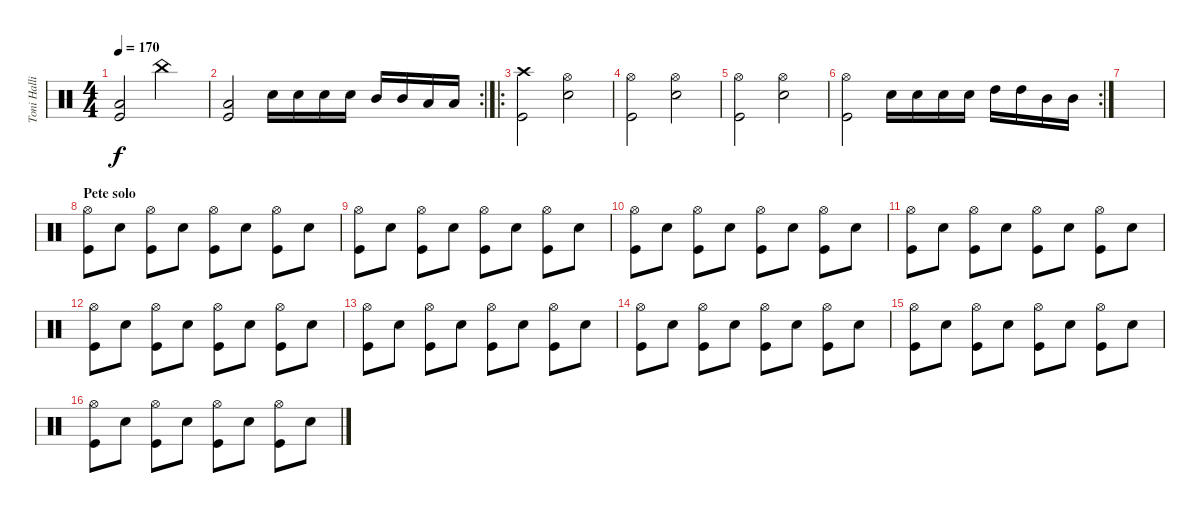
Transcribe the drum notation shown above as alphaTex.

\track ("Toni Hallio" "Toni Halli") {instrument percussion}
\staff {score}
\articulation defaults
\ts (4 4)
\tempo 170
\clef neutral
\ks c
("Low Floor Tom (hit)" "Kick (hit)").2{dy f} "China (hit)".2 |
\rc 2
("Low Floor Tom (hit)" "Kick (hit)").2 "Snare (hit) 2".16 "Snare (hit) 2".16 "Snare (hit) 2".16 "Snare (hit) 2".16 "Mid Tom (hit)".16 "Mid Tom (hit)".16 "Low Tom (hit)".16 "Low Tom (hit)".16 |
\ro
("Crash high (hit)" "Kick (hit)").2 ("Hi-Hat (open)" "Snare (hit) 2").2 |
("Hi-Hat (open)" "Kick (hit)").2 ("Hi-Hat (open)" "Snare (hit) 2").2 |
("Hi-Hat (open)" "Kick (hit)").2 ("Hi-Hat (open)" "Snare (hit) 2").2 |
\rc 2
("Hi-Hat (open)" "Kick (hit)").2 "Snare (hit) 2".16 "Snare (hit) 2".16 "Snare (hit) 2".16 "Snare (hit) 2".16 "High Tom (hit)".16 "High Tom (hit)".16 "Mid Tom (hit)".16 "Mid Tom (hit)".16 |
|
\section ("" "Pete solo")
("Hi-Hat (open)" "Kick (hit)").8 "Snare (hit) 2".8 ("Hi-Hat (open)" "Kick (hit)").8 "Snare (hit) 2".8 ("Hi-Hat (open)" "Kick (hit)").8 "Snare (hit) 2".8 ("Hi-Hat (open)" "Kick (hit)").8 "Snare (hit) 2".8 |
("Hi-Hat (open)" "Kick (hit)").8 "Snare (hit) 2".8 ("Hi-Hat (open)" "Kick (hit)").8 "Snare (hit) 2".8 ("Hi-Hat (open)" "Kick (hit)").8 "Snare (hit) 2".8 ("Hi-Hat (open)" "Kick (hit)").8 "Snare (hit) 2".8 |
("Hi-Hat (open)" "Kick (hit)").8 "Snare (hit) 2".8 ("Hi-Hat (open)" "Kick (hit)").8 "Snare (hit) 2".8 ("Hi-Hat (open)" "Kick (hit)").8 "Snare (hit) 2".8 ("Hi-Hat (open)" "Kick (hit)").8 "Snare (hit) 2".8 |
("Hi-Hat (open)" "Kick (hit)").8 "Snare (hit) 2".8 ("Hi-Hat (open)" "Kick (hit)").8 "Snare (hit) 2".8 ("Hi-Hat (open)" "Kick (hit)").8 "Snare (hit) 2".8 ("Hi-Hat (open)" "Kick (hit)").8 "Snare (hit) 2".8 |
("Hi-Hat (open)" "Kick (hit)").8 "Snare (hit) 2".8 ("Hi-Hat (open)" "Kick (hit)").8 "Snare (hit) 2".8 ("Hi-Hat (open)" "Kick (hit)").8 "Snare (hit) 2".8 ("Hi-Hat (open)" "Kick (hit)").8 "Snare (hit) 2".8 |
("Hi-Hat (open)" "Kick (hit)").8 "Snare (hit) 2".8 ("Hi-Hat (open)" "Kick (hit)").8 "Snare (hit) 2".8 ("Hi-Hat (open)" "Kick (hit)").8 "Snare (hit) 2".8 ("Hi-Hat (open)" "Kick (hit)").8 "Snare (hit) 2".8 |
("Hi-Hat (open)" "Kick (hit)").8 "Snare (hit) 2".8 ("Hi-Hat (open)" "Kick (hit)").8 "Snare (hit) 2".8 ("Hi-Hat (open)" "Kick (hit)").8 "Snare (hit) 2".8 ("Hi-Hat (open)" "Kick (hit)").8 "Snare (hit) 2".8 |
("Hi-Hat (open)" "Kick (hit)").8 "Snare (hit) 2".8 ("Hi-Hat (open)" "Kick (hit)").8 "Snare (hit) 2".8 ("Hi-Hat (open)" "Kick (hit)").8 "Snare (hit) 2".8 ("Hi-Hat (open)" "Kick (hit)").8 "Snare (hit) 2".8 |
("Hi-Hat (open)" "Kick (hit)").8 "Snare (hit) 2".8 ("Hi-Hat (open)" "Kick (hit)").8 "Snare (hit) 2".8 ("Hi-Hat (open)" "Kick (hit)").8 "Snare (hit) 2".8 ("Hi-Hat (open)" "Kick (hit)").8 "Snare (hit) 2".8
